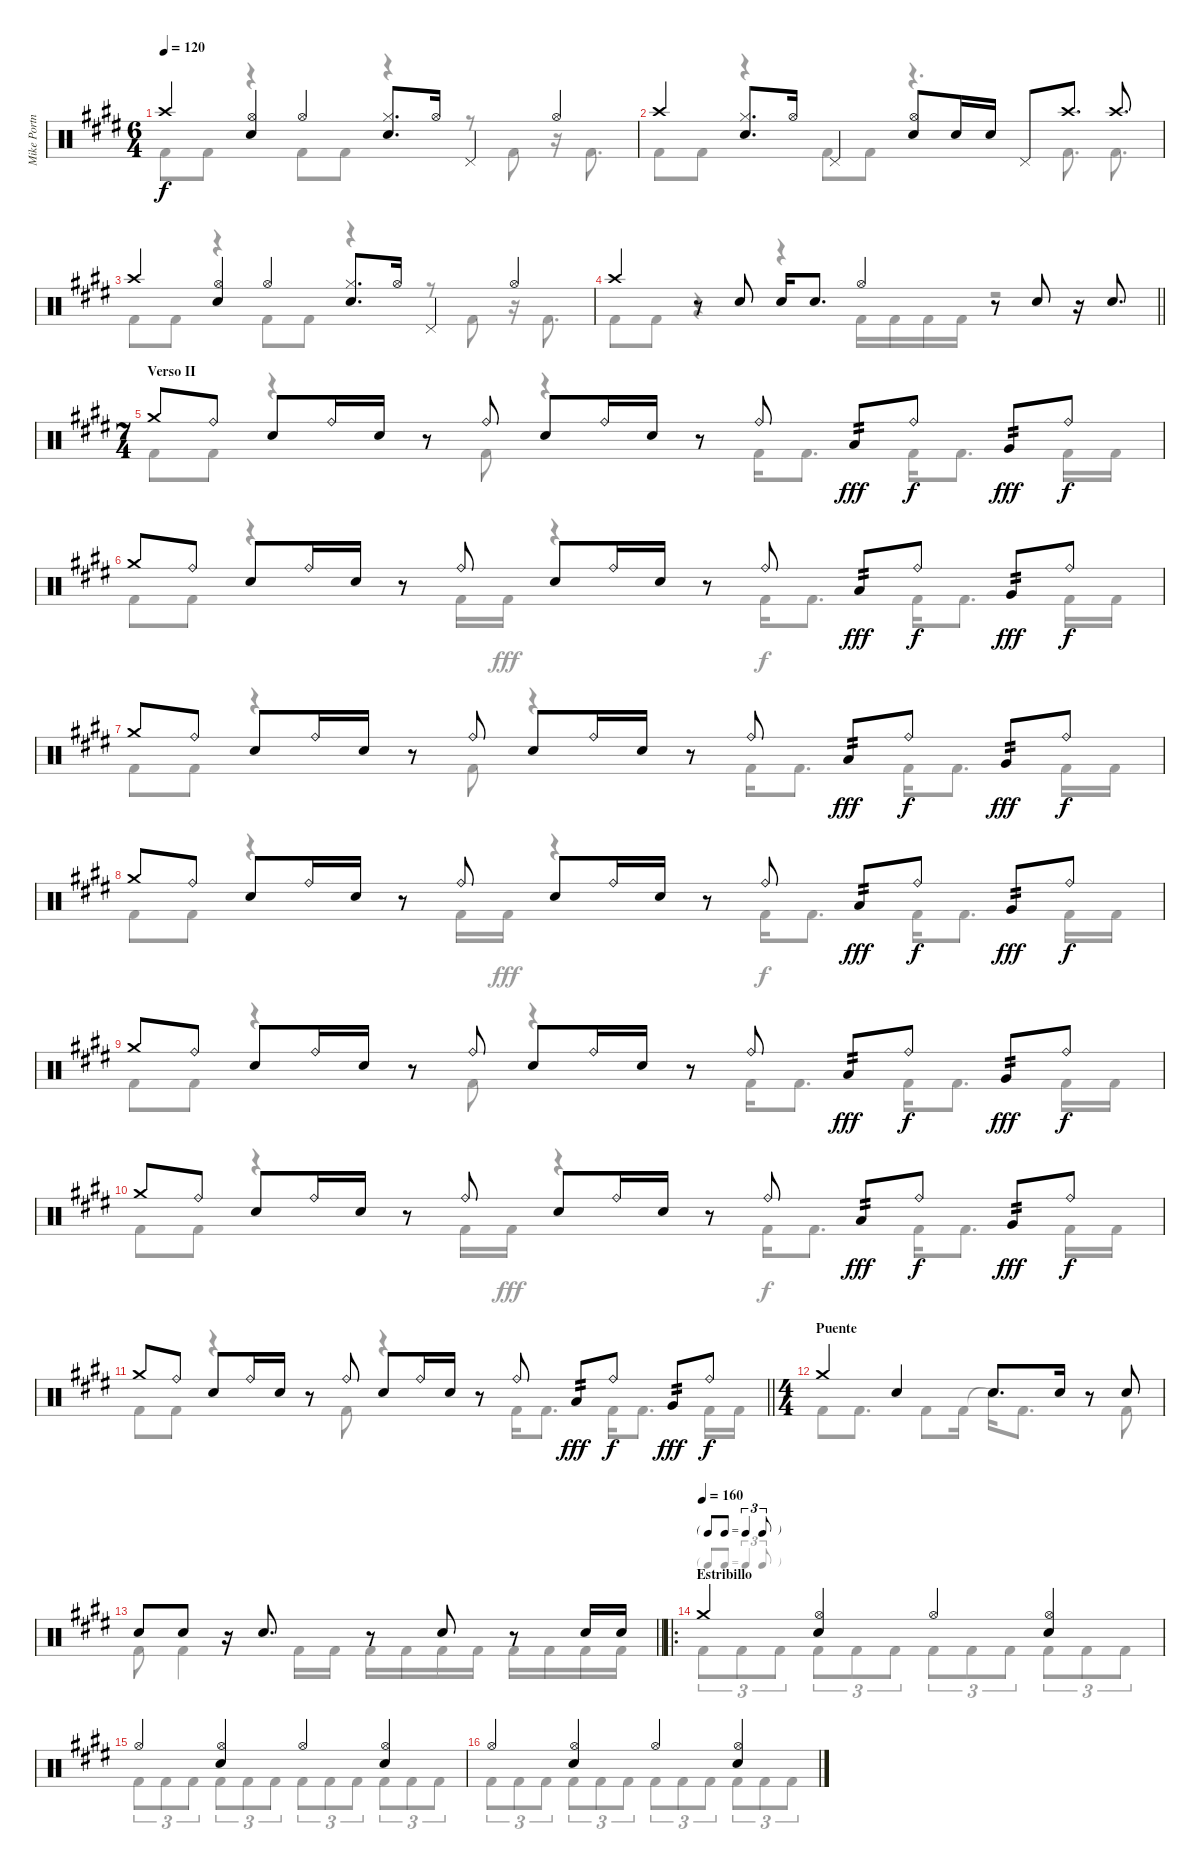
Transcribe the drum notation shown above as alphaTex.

\track ("Mike Portnoy" "Mike Portn") {instrument percussion}
\staff {score}
\articulation defaults
\voice
\ts (6 4)
\tempo 120
\clef neutral
\ks e "Crash high (hit)".4{dy f}
("Hi-Hat (open)" "Snare (hit) 2").4 "Hi-Hat (open)".4 ("Hi-Hat (closed)" "Snare (hit) 2").8{d} "Hi-Hat (open)".16 "Pedal Hi-Hat (hit)".4 "Hi-Hat (open)".4 |
"Crash high (hit)".4 ("Hi-Hat (closed)" "Snare (hit) 2").8{d} "Hi-Hat (open)".16 "Pedal Hi-Hat (hit)".4 ("Hi-Hat (open)" "Snare (hit) 2").8 "Snare (hit) 2".16 "Snare (hit) 2".16 "Pedal Hi-Hat (hit)".8 "Crash high (hit)".8{d} "Crash high (hit)".8{d} |
"Crash high (hit)".4 ("Hi-Hat (open)" "Snare (hit) 2").4 "Hi-Hat (open)".4 ("Hi-Hat (closed)" "Snare (hit) 2").8{d} "Hi-Hat (open)".16 "Pedal Hi-Hat (hit)".4 "Hi-Hat (open)".4 |
\barLineRight lightlight "Crash high (hit)".4
r.8 "Snare (hit) 2".8 "Snare (hit) 2".16 "Snare (hit) 2".8{d} "Hi-Hat (open)".4 r.8 "Snare (hit) 2".8 r.16 "Snare (hit) 2".8{d} |
\ts (7 4)
\section ("" "Verso II")
"Crash medium (hit)".8 "Ride (bell)".8 "Snare (hit) 2".8 "Ride (bell)".16 "Snare (hit) 2".16 r.8 "Ride (bell)".8 "Snare (hit) 2".8 "Ride (bell)".16 "Snare (hit) 2".16 r.8 "Ride (bell)".8 "Low Tom (hit)".8{tp 2 dy fff} "Ride (bell)".8{dy f} "Very Low Tom (hit)".8{tp 2 dy fff} "Ride (bell)".8{dy f} |
"Crash medium (hit)".8 "Ride (bell)".8 "Snare (hit) 2".8 "Ride (bell)".16 "Snare (hit) 2".16 r.8 "Ride (bell)".8 "Snare (hit) 2".8 "Ride (bell)".16 "Snare (hit) 2".16 r.8 "Ride (bell)".8 "Low Tom (hit)".8{tp 2 dy fff} "Ride (bell)".8{dy f} "Very Low Tom (hit)".8{tp 2 dy fff} "Ride (bell)".8{dy f} |
"Crash medium (hit)".8 "Ride (bell)".8 "Snare (hit) 2".8 "Ride (bell)".16 "Snare (hit) 2".16 r.8 "Ride (bell)".8 "Snare (hit) 2".8 "Ride (bell)".16 "Snare (hit) 2".16 r.8 "Ride (bell)".8 "Low Tom (hit)".8{tp 2 dy fff} "Ride (bell)".8{dy f} "Very Low Tom (hit)".8{tp 2 dy fff} "Ride (bell)".8{dy f} |
"Crash medium (hit)".8 "Ride (bell)".8 "Snare (hit) 2".8 "Ride (bell)".16 "Snare (hit) 2".16 r.8 "Ride (bell)".8 "Snare (hit) 2".8 "Ride (bell)".16 "Snare (hit) 2".16 r.8 "Ride (bell)".8 "Low Tom (hit)".8{tp 2 dy fff} "Ride (bell)".8{dy f} "Very Low Tom (hit)".8{tp 2 dy fff} "Ride (bell)".8{dy f} |
"Crash medium (hit)".8 "Ride (bell)".8 "Snare (hit) 2".8 "Ride (bell)".16 "Snare (hit) 2".16 r.8 "Ride (bell)".8 "Snare (hit) 2".8 "Ride (bell)".16 "Snare (hit) 2".16 r.8 "Ride (bell)".8 "Low Tom (hit)".8{tp 2 dy fff} "Ride (bell)".8{dy f} "Very Low Tom (hit)".8{tp 2 dy fff} "Ride (bell)".8{dy f} |
"Crash medium (hit)".8 "Ride (bell)".8 "Snare (hit) 2".8 "Ride (bell)".16 "Snare (hit) 2".16 r.8 "Ride (bell)".8 "Snare (hit) 2".8 "Ride (bell)".16 "Snare (hit) 2".16 r.8 "Ride (bell)".8 "Low Tom (hit)".8{tp 2 dy fff} "Ride (bell)".8{dy f} "Very Low Tom (hit)".8{tp 2 dy fff} "Ride (bell)".8{dy f} |
\barLineRight lightlight "Crash medium (hit)".8 "Ride (bell)".8 "Snare (hit) 2".8 "Ride (bell)".16 "Snare (hit) 2".16
r.8 "Ride (bell)".8 "Snare (hit) 2".8 "Ride (bell)".16 "Snare (hit) 2".16 r.8 "Ride (bell)".8 "Low Tom (hit)".8{tp 2 dy fff} "Ride (bell)".8{dy f} "Very Low Tom (hit)".8{tp 2 dy fff} "Ride (bell)".8{dy f} |
\ts (4 4)
\section ("" "Puente")
"Crash medium (hit)".4 "Snare (hit) 2".4 "Snare (hit) 2".8{d} "Snare (hit) 2".16 r.8 "Snare (hit) 2".8 |
\barLineRight lightlight "Snare (hit) 2".8 "Snare (hit) 2".8
r.16 "Snare (hit) 2".8{d} r.8 "Snare (hit) 2".8 r.8 "Snare (hit) 2".16 "Snare (hit) 2".16 |
\ro
\tf triplet8th
\section ("" "Estribillo")
\tempo (160)
"Crash medium (hit)".4 ("Hi-Hat (open)" "Snare (hit) 2").4 "Hi-Hat (open)".4 ("Hi-Hat (open)" "Snare (hit) 2").4 |
"Hi-Hat (open)".4 ("Hi-Hat (open)" "Snare (hit) 2").4 "Hi-Hat (open)".4 ("Hi-Hat (open)" "Snare (hit) 2").4 |
"Hi-Hat (open)".4 ("Hi-Hat (open)" "Snare (hit) 2").4 "Hi-Hat (open)".4 ("Hi-Hat (open)" "Snare (hit) 2").4
\voice
\clef neutral
\ottava regular
\simile none
\ks e "Kick (hit) 2".8{dy f} "Kick (hit) 2".8
r.4 "Kick (hit) 2".8 "Kick (hit) 2".8 r.4 r.8 "Kick (hit) 2".8 r.16 "Kick (hit) 2".8{d} |
"Kick (hit) 2".8 "Kick (hit) 2".8 r.4 "Kick (hit) 2".8 "Kick (hit) 2".8 r.4{d} "Kick (hit) 2".8{d} "Kick (hit) 2".8{d} |
"Kick (hit) 2".8 "Kick (hit) 2".8 r.4 "Kick (hit) 2".8 "Kick (hit) 2".8 r.4 r.8 "Kick (hit) 2".8 r.16 "Kick (hit) 2".8{d} |
\barLineRight lightlight "Kick (hit) 2".8 "Kick (hit) 2".8
r.4 r.4 "Kick (hit) 2".16 "Kick (hit) 2".16 "Kick (hit) 2".16 "Kick (hit) 2".16 r.2 |
"Kick (hit) 2".8 "Kick (hit) 2".8 r.4 r.8 "Kick (hit) 2".8 r.4 r.8 "Kick (hit) 2".16 "Kick (hit) 2".8{d} "Kick (hit) 2".16 "Kick (hit) 2".8{d} "Kick (hit) 2".16 "Kick (hit) 2".16 |
"Kick (hit) 2".8 "Kick (hit) 2".8 r.4 r.8 "Kick (hit) 2".16 "Kick (hit) 2".16{dy fff} r.4 r.8 "Kick (hit) 2".16{dy f} "Kick (hit) 2".8{d} "Kick (hit) 2".16 "Kick (hit) 2".8{d} "Kick (hit) 2".16 "Kick (hit) 2".16 |
"Kick (hit) 2".8 "Kick (hit) 2".8 r.4 r.8 "Kick (hit) 2".8 r.4 r.8 "Kick (hit) 2".16 "Kick (hit) 2".8{d} "Kick (hit) 2".16 "Kick (hit) 2".8{d} "Kick (hit) 2".16 "Kick (hit) 2".16 |
"Kick (hit) 2".8 "Kick (hit) 2".8 r.4 r.8 "Kick (hit) 2".16 "Kick (hit) 2".16{dy fff} r.4 r.8 "Kick (hit) 2".16{dy f} "Kick (hit) 2".8{d} "Kick (hit) 2".16 "Kick (hit) 2".8{d} "Kick (hit) 2".16 "Kick (hit) 2".16 |
"Kick (hit) 2".8 "Kick (hit) 2".8 r.4 r.8 "Kick (hit) 2".8 r.4 r.8 "Kick (hit) 2".16 "Kick (hit) 2".8{d} "Kick (hit) 2".16 "Kick (hit) 2".8{d} "Kick (hit) 2".16 "Kick (hit) 2".16 |
"Kick (hit) 2".8 "Kick (hit) 2".8 r.4 r.8 "Kick (hit) 2".16 "Kick (hit) 2".16{dy fff} r.4 r.8 "Kick (hit) 2".16{dy f} "Kick (hit) 2".8{d} "Kick (hit) 2".16 "Kick (hit) 2".8{d} "Kick (hit) 2".16 "Kick (hit) 2".16 |
\barLineRight lightlight "Kick (hit) 2".8 "Kick (hit) 2".8
r.4 r.8 "Kick (hit) 2".8 r.4 r.8 "Kick (hit) 2".16 "Kick (hit) 2".8{d} "Kick (hit) 2".16 "Kick (hit) 2".8{d} "Kick (hit) 2".16 "Kick (hit) 2".16 |
"Kick (hit) 2".8 "Kick (hit) 2".8{d} "Kick (hit) 2".8 "Kick (hit) 2".16 "Snare (hit)"{t}.16 "Kick (hit) 2".8{d} r.8 "Kick (hit) 2".8 |
\barLineRight lightlight "Kick (hit) 2".8 "Kick (hit) 2".4 "Kick (hit) 2".16 "Kick (hit) 2".16 "Kick (hit) 2".16 "Kick (hit) 2".16 "Kick (hit) 2".16 "Kick (hit) 2".16 "Kick (hit) 2".16 "Kick (hit) 2".16 "Kick (hit) 2".16 "Kick (hit) 2".16
|
"Kick (hit) 2".8{tu (3 2)} "Kick (hit) 2".8{tu (3 2)} "Kick (hit) 2".8{tu (3 2)} "Kick (hit) 2".8{tu (3 2)} "Kick (hit) 2".8{tu (3 2)} "Kick (hit) 2".8{tu (3 2)} "Kick (hit) 2".8{tu (3 2)} "Kick (hit) 2".8{tu (3 2)} "Kick (hit) 2".8{tu (3 2)} "Kick (hit) 2".8{tu (3 2)} "Kick (hit) 2".8{tu (3 2)} "Kick (hit) 2".8{tu (3 2)} |
"Kick (hit) 2".8{tu (3 2)} "Kick (hit) 2".8{tu (3 2)} "Kick (hit) 2".8{tu (3 2)} "Kick (hit) 2".8{tu (3 2)} "Kick (hit) 2".8{tu (3 2)} "Kick (hit) 2".8{tu (3 2)} "Kick (hit) 2".8{tu (3 2)} "Kick (hit) 2".8{tu (3 2)} "Kick (hit) 2".8{tu (3 2)} "Kick (hit) 2".8{tu (3 2)} "Kick (hit) 2".8{tu (3 2)} "Kick (hit) 2".8{tu (3 2)} |
"Kick (hit) 2".8{tu (3 2)} "Kick (hit) 2".8{tu (3 2)} "Kick (hit) 2".8{tu (3 2)} "Kick (hit) 2".8{tu (3 2)} "Kick (hit) 2".8{tu (3 2)} "Kick (hit) 2".8{tu (3 2)} "Kick (hit) 2".8{tu (3 2)} "Kick (hit) 2".8{tu (3 2)} "Kick (hit) 2".8{tu (3 2)} "Kick (hit) 2".8{tu (3 2)} "Kick (hit) 2".8{tu (3 2)} "Kick (hit) 2".8{tu (3 2)}
